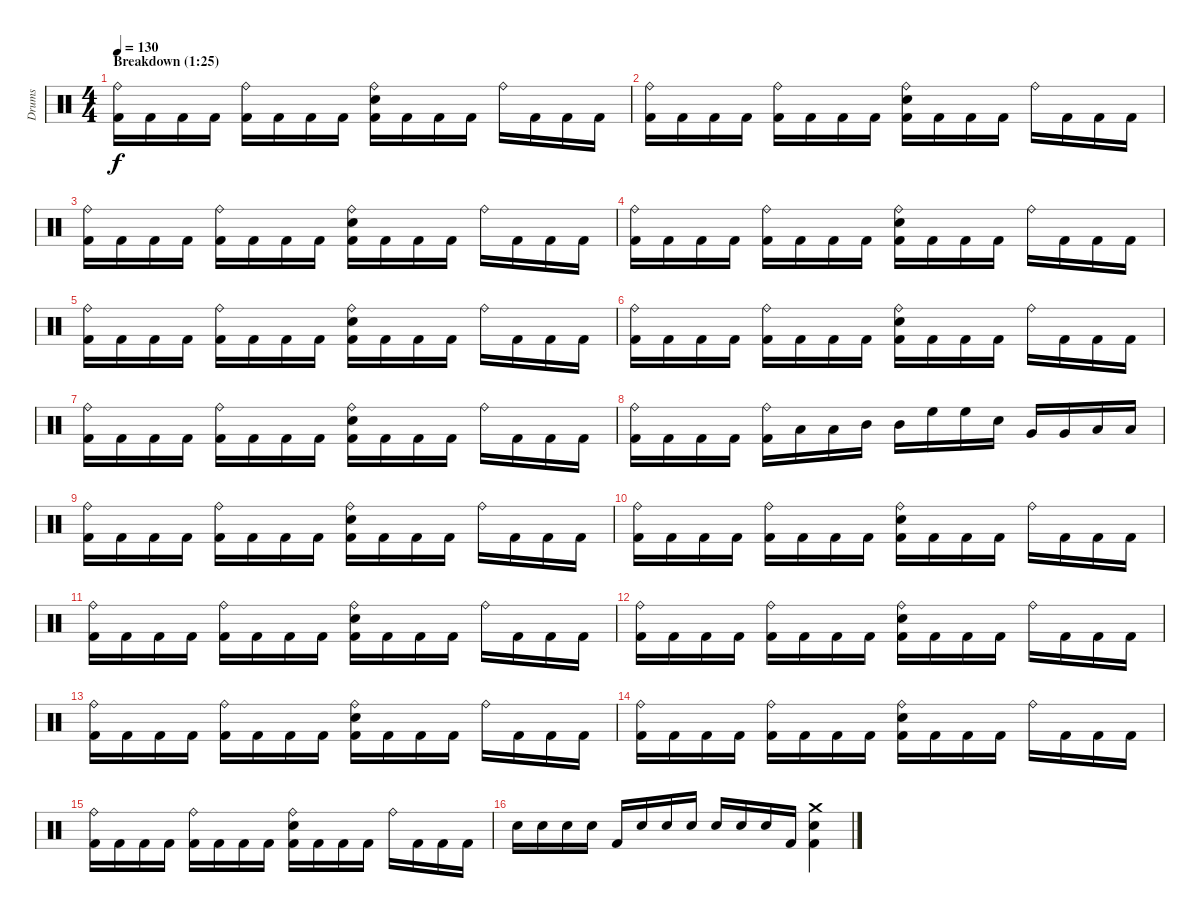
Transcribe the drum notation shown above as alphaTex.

\track ("Drums" "Drums") {instrument percussion}
\staff {score}
\articulation defaults
\ts (4 4)
\section ("" "Breakdown (1:25)")
\tempo 130
\clef neutral
\ks c
("Ride (bell)" "Kick (hit) 2").16{dy f} "Kick (hit) 2".16 "Kick (hit) 2".16 "Kick (hit) 2".16 ("Ride (bell)" "Kick (hit) 2").16 "Kick (hit) 2".16 "Kick (hit) 2".16 "Kick (hit) 2".16 ("Ride (bell)" "Electric Snare (hit)" "Kick (hit) 2").16 "Kick (hit) 2".16 "Kick (hit) 2".16 "Kick (hit) 2".16 "Ride (bell)".16 "Kick (hit) 2".16 "Kick (hit) 2".16 "Kick (hit) 2".16 |
("Ride (bell)" "Kick (hit) 2").16 "Kick (hit) 2".16 "Kick (hit) 2".16 "Kick (hit) 2".16 ("Ride (bell)" "Kick (hit) 2").16 "Kick (hit) 2".16 "Kick (hit) 2".16 "Kick (hit) 2".16 ("Ride (bell)" "Electric Snare (hit)" "Kick (hit) 2").16 "Kick (hit) 2".16 "Kick (hit) 2".16 "Kick (hit) 2".16 "Ride (bell)".16 "Kick (hit) 2".16 "Kick (hit) 2".16 "Kick (hit) 2".16 |
("Ride (bell)" "Kick (hit) 2").16 "Kick (hit) 2".16 "Kick (hit) 2".16 "Kick (hit) 2".16 ("Ride (bell)" "Kick (hit) 2").16 "Kick (hit) 2".16 "Kick (hit) 2".16 "Kick (hit) 2".16 ("Ride (bell)" "Electric Snare (hit)" "Kick (hit) 2").16 "Kick (hit) 2".16 "Kick (hit) 2".16 "Kick (hit) 2".16 "Ride (bell)".16 "Kick (hit) 2".16 "Kick (hit) 2".16 "Kick (hit) 2".16 |
("Ride (bell)" "Kick (hit) 2").16 "Kick (hit) 2".16 "Kick (hit) 2".16 "Kick (hit) 2".16 ("Ride (bell)" "Kick (hit) 2").16 "Kick (hit) 2".16 "Kick (hit) 2".16 "Kick (hit) 2".16 ("Ride (bell)" "Electric Snare (hit)" "Kick (hit) 2").16 "Kick (hit) 2".16 "Kick (hit) 2".16 "Kick (hit) 2".16 "Ride (bell)".16 "Kick (hit) 2".16 "Kick (hit) 2".16 "Kick (hit) 2".16 |
("Ride (bell)" "Kick (hit) 2").16 "Kick (hit) 2".16 "Kick (hit) 2".16 "Kick (hit) 2".16 ("Ride (bell)" "Kick (hit) 2").16 "Kick (hit) 2".16 "Kick (hit) 2".16 "Kick (hit) 2".16 ("Ride (bell)" "Electric Snare (hit)" "Kick (hit) 2").16 "Kick (hit) 2".16 "Kick (hit) 2".16 "Kick (hit) 2".16 "Ride (bell)".16 "Kick (hit) 2".16 "Kick (hit) 2".16 "Kick (hit) 2".16 |
("Ride (bell)" "Kick (hit) 2").16 "Kick (hit) 2".16 "Kick (hit) 2".16 "Kick (hit) 2".16 ("Ride (bell)" "Kick (hit) 2").16 "Kick (hit) 2".16 "Kick (hit) 2".16 "Kick (hit) 2".16 ("Ride (bell)" "Electric Snare (hit)" "Kick (hit) 2").16 "Kick (hit) 2".16 "Kick (hit) 2".16 "Kick (hit) 2".16 "Ride (bell)".16 "Kick (hit) 2".16 "Kick (hit) 2".16 "Kick (hit) 2".16 |
("Ride (bell)" "Kick (hit) 2").16 "Kick (hit) 2".16 "Kick (hit) 2".16 "Kick (hit) 2".16 ("Ride (bell)" "Kick (hit) 2").16 "Kick (hit) 2".16 "Kick (hit) 2".16 "Kick (hit) 2".16 ("Ride (bell)" "Electric Snare (hit)" "Kick (hit) 2").16 "Kick (hit) 2".16 "Kick (hit) 2".16 "Kick (hit) 2".16 "Ride (bell)".16 "Kick (hit) 2".16 "Kick (hit) 2".16 "Kick (hit) 2".16 |
("Ride (bell)" "Kick (hit) 2").16 "Kick (hit) 2".16 "Kick (hit) 2".16 "Kick (hit) 2".16 ("Ride (bell)" "Kick (hit) 2").16 "Low Tom (hit)".16 "Low Tom (hit)".16 "Mid Tom (hit)".16 "Mid Tom (hit)".16 "High Floor Tom (hit)".16 "High Floor Tom (hit)".16 "Electric Snare (hit)".16 "Very Low Tom (hit)".16 "Very Low Tom (hit)".16 "Low Floor Tom (hit)".16 "Low Floor Tom (hit)".16 |
("Ride (bell)" "Kick (hit) 2").16 "Kick (hit) 2".16 "Kick (hit) 2".16 "Kick (hit) 2".16 ("Ride (bell)" "Kick (hit) 2").16 "Kick (hit) 2".16 "Kick (hit) 2".16 "Kick (hit) 2".16 ("Ride (bell)" "Electric Snare (hit)" "Kick (hit) 2").16 "Kick (hit) 2".16 "Kick (hit) 2".16 "Kick (hit) 2".16 "Ride (bell)".16 "Kick (hit) 2".16 "Kick (hit) 2".16 "Kick (hit) 2".16 |
("Ride (bell)" "Kick (hit) 2").16 "Kick (hit) 2".16 "Kick (hit) 2".16 "Kick (hit) 2".16 ("Ride (bell)" "Kick (hit) 2").16 "Kick (hit) 2".16 "Kick (hit) 2".16 "Kick (hit) 2".16 ("Ride (bell)" "Electric Snare (hit)" "Kick (hit) 2").16 "Kick (hit) 2".16 "Kick (hit) 2".16 "Kick (hit) 2".16 "Ride (bell)".16 "Kick (hit) 2".16 "Kick (hit) 2".16 "Kick (hit) 2".16 |
("Ride (bell)" "Kick (hit) 2").16 "Kick (hit) 2".16 "Kick (hit) 2".16 "Kick (hit) 2".16 ("Ride (bell)" "Kick (hit) 2").16 "Kick (hit) 2".16 "Kick (hit) 2".16 "Kick (hit) 2".16 ("Ride (bell)" "Electric Snare (hit)" "Kick (hit) 2").16 "Kick (hit) 2".16 "Kick (hit) 2".16 "Kick (hit) 2".16 "Ride (bell)".16 "Kick (hit) 2".16 "Kick (hit) 2".16 "Kick (hit) 2".16 |
("Ride (bell)" "Kick (hit) 2").16 "Kick (hit) 2".16 "Kick (hit) 2".16 "Kick (hit) 2".16 ("Ride (bell)" "Kick (hit) 2").16 "Kick (hit) 2".16 "Kick (hit) 2".16 "Kick (hit) 2".16 ("Ride (bell)" "Electric Snare (hit)" "Kick (hit) 2").16 "Kick (hit) 2".16 "Kick (hit) 2".16 "Kick (hit) 2".16 "Ride (bell)".16 "Kick (hit) 2".16 "Kick (hit) 2".16 "Kick (hit) 2".16 |
("Ride (bell)" "Kick (hit) 2").16 "Kick (hit) 2".16 "Kick (hit) 2".16 "Kick (hit) 2".16 ("Ride (bell)" "Kick (hit) 2").16 "Kick (hit) 2".16 "Kick (hit) 2".16 "Kick (hit) 2".16 ("Ride (bell)" "Electric Snare (hit)" "Kick (hit) 2").16 "Kick (hit) 2".16 "Kick (hit) 2".16 "Kick (hit) 2".16 "Ride (bell)".16 "Kick (hit) 2".16 "Kick (hit) 2".16 "Kick (hit) 2".16 |
("Ride (bell)" "Kick (hit) 2").16 "Kick (hit) 2".16 "Kick (hit) 2".16 "Kick (hit) 2".16 ("Ride (bell)" "Kick (hit) 2").16 "Kick (hit) 2".16 "Kick (hit) 2".16 "Kick (hit) 2".16 ("Ride (bell)" "Electric Snare (hit)" "Kick (hit) 2").16 "Kick (hit) 2".16 "Kick (hit) 2".16 "Kick (hit) 2".16 "Ride (bell)".16 "Kick (hit) 2".16 "Kick (hit) 2".16 "Kick (hit) 2".16 |
("Ride (bell)" "Kick (hit) 2").16 "Kick (hit) 2".16 "Kick (hit) 2".16 "Kick (hit) 2".16 ("Ride (bell)" "Kick (hit) 2").16 "Kick (hit) 2".16 "Kick (hit) 2".16 "Kick (hit) 2".16 ("Ride (bell)" "Electric Snare (hit)" "Kick (hit) 2").16 "Kick (hit) 2".16 "Kick (hit) 2".16 "Kick (hit) 2".16 "Ride (bell)".16 "Kick (hit) 2".16 "Kick (hit) 2".16 "Kick (hit) 2".16 |
"Electric Snare (hit)".16 "Electric Snare (hit)".16 "Electric Snare (hit)".16 "Electric Snare (hit)".16 "Kick (hit) 2".16 "Electric Snare (hit)".16 "Electric Snare (hit)".16 "Electric Snare (hit)".16 "Electric Snare (hit)".16 "Electric Snare (hit)".16 "Electric Snare (hit)".16 "Kick (hit) 2".16 ("Crash medium (hit)" "Electric Snare (hit)" "Kick (hit) 2").4
